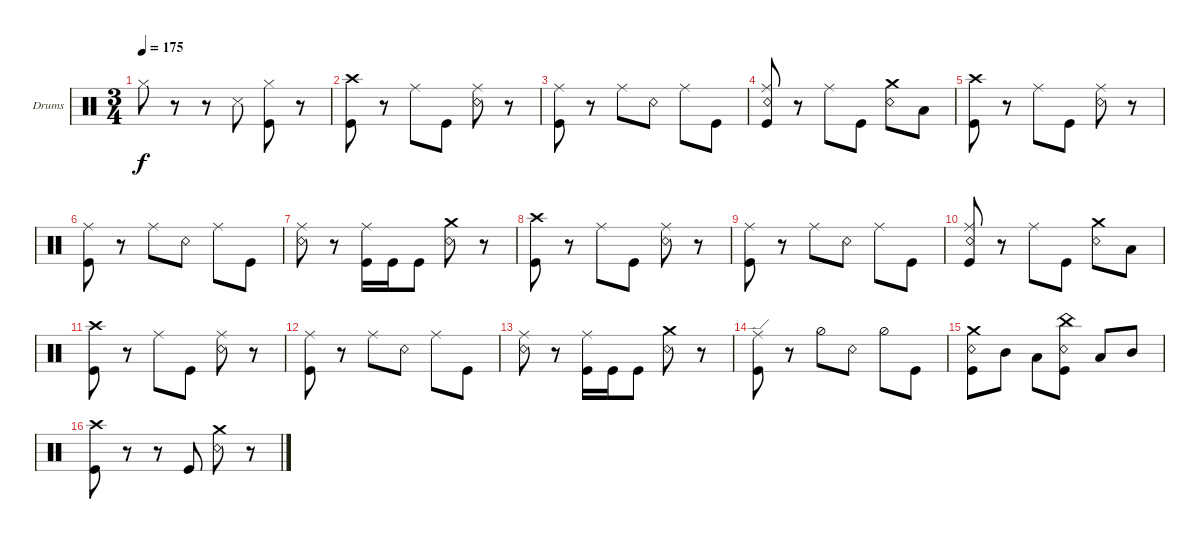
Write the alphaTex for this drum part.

\bracketExtendMode groupsimilarinstruments
\firstSystemTrackNameOrientation horizontal
\otherSystemsTrackNameOrientation horizontal
\track ("Drumkit" "Drums") {instrument percussion}
\staff {score}
\articulation defaults
\ts (3 4)
\tempo 175
\clef neutral
\ks c "Hi-Hat (closed)".8{dy f}
r.8 r.8 "Snare (side stick) 3".8 ("Hi-Hat (closed)" "Kick (hit)").8 r.8 |
("Kick (hit)" "Crash high (hit)").8 r.8 "Ride (middle)".8 "Kick (hit)".8 ("Snare (rim shot)" "Ride (middle)").8 r.8 |
("Kick (hit)" "Ride (middle)").8 r.8 "Ride (middle)".8 "Snare (rim shot)".8 "Ride (middle)".8 "Kick (hit)".8 |
("Ride (middle)" "Kick (hit)" "Snare (rim shot)").8 r.8 "Ride (middle)".8 "Kick (hit)".8 ("Snare (rim shot)" "Crash medium (hit)").8 "Low Tom (hit)".8 |
("Kick (hit)" "Crash high (hit)").8 r.8 "Ride (middle)".8 "Kick (hit)".8 ("Snare (rim shot)" "Ride (middle)").8 r.8 |
("Kick (hit)" "Ride (middle)").8 r.8 "Ride (middle)".8 "Snare (rim shot)".8 "Ride (middle)".8 "Kick (hit)".8 |
("Snare (rim shot)" "Ride (middle)").8 r.8 ("Kick (hit)" "Ride (middle)").16 "Kick (hit)".16 "Kick (hit)".8 ("Snare (rim shot)" "Crash medium (hit)").8 r.8 |
("Kick (hit)" "Crash high (hit)").8 r.8 "Ride (middle)".8 "Kick (hit)".8 ("Snare (rim shot)" "Ride (middle)").8 r.8 |
("Kick (hit)" "Ride (middle)").8 r.8 "Ride (middle)".8 "Snare (rim shot)".8 "Ride (middle)".8 "Kick (hit)".8 |
("Ride (middle)" "Kick (hit)" "Snare (rim shot)").8 r.8 "Ride (middle)".8 "Kick (hit)".8 ("Snare (rim shot)" "Crash medium (hit)").8 "Low Tom (hit)".8 |
("Kick (hit)" "Crash high (hit)").8 r.8 "Ride (middle)".8 "Kick (hit)".8 ("Snare (rim shot)" "Ride (middle)").8 r.8 |
("Kick (hit)" "Ride (middle)").8 r.8 "Ride (middle)".8 "Snare (rim shot)".8 "Ride (middle)".8 "Kick (hit)".8 |
("Snare (rim shot)" "Ride (middle)").8 r.8 ("Kick (hit)" "Ride (middle)").16 "Kick (hit)".16 "Kick (hit)".8 ("Snare (rim shot)" "Crash medium (hit)").8 r.8 |
("Kick (hit)" "Ride (edge)").8 r.8 "Hi-Hat (half)".8 "Snare (rim shot)".8 "Hi-Hat (half)".8 "Kick (hit)".8 |
("Crash medium (hit)" "Snare (rim shot)" "Kick (hit)").8 "Mid Tom (hit)".8 "Low Tom (hit)".8 ("China (hit)" "Snare (rim shot)" "Kick (hit)").8 "Low Tom (hit)".8 "Mid Tom (hit)".8 |
("Kick (hit)" "Crash high (hit)").8 r.8 r.8 "Kick (hit)".8 ("Snare (rim shot)" "Crash medium (hit)").8 r.8
